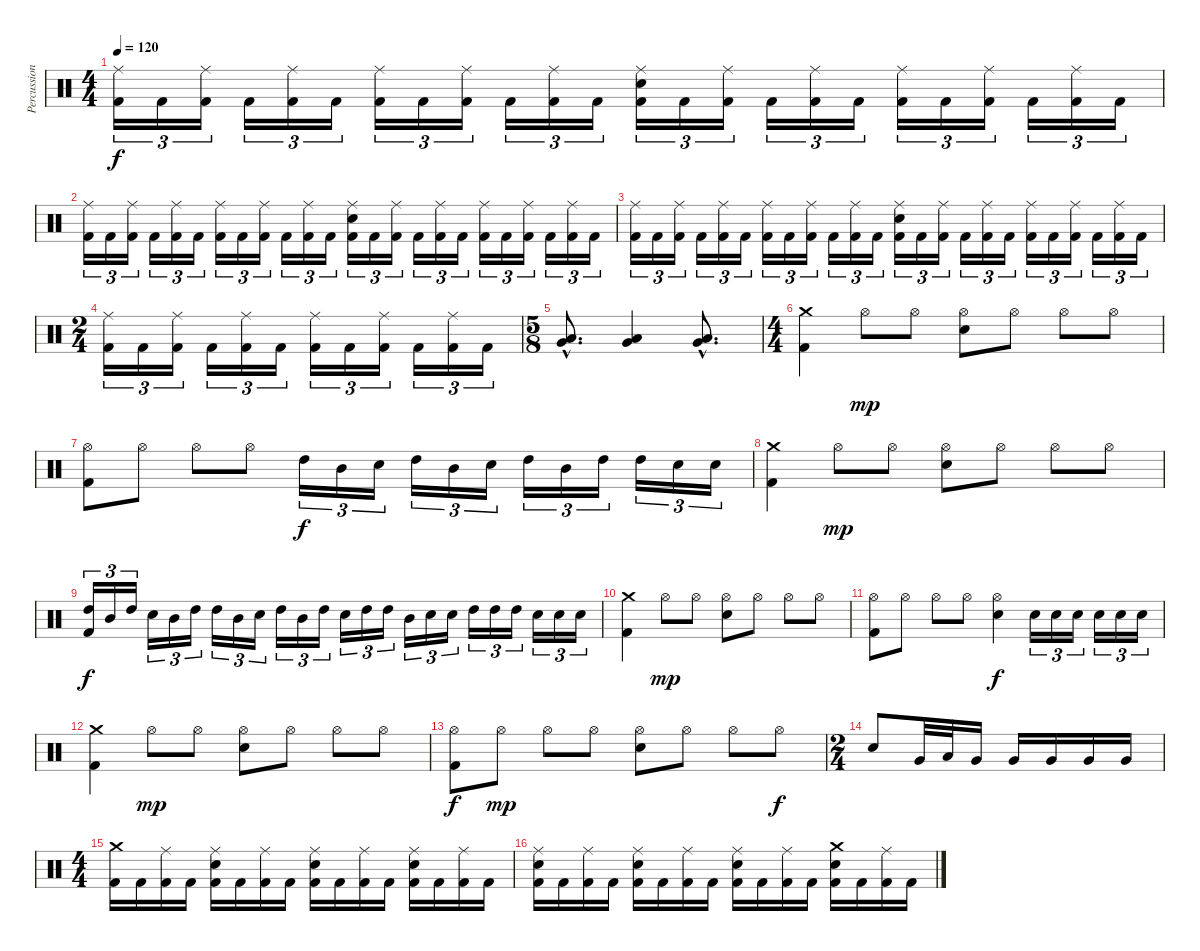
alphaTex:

\track ("Percussion" "Percussion") {instrument percussion}
\staff {score}
\articulation defaults
\ts (4 4)
\tempo 120
\clef neutral
\ks c
("Ride (middle)" "Kick (hit) 2").16{tu (3 2) dy f} "Kick (hit) 2".16{tu (3 2)} ("Ride (middle)" "Kick (hit) 2").16{tu (3 2)} "Kick (hit) 2".16{tu (3 2)} ("Ride (middle)" "Kick (hit) 2").16{tu (3 2)} "Kick (hit) 2".16{tu (3 2)} ("Ride (middle)" "Kick (hit) 2").16{tu (3 2)} "Kick (hit) 2".16{tu (3 2)} ("Ride (middle)" "Kick (hit) 2").16{tu (3 2)} "Kick (hit) 2".16{tu (3 2)} ("Ride (middle)" "Kick (hit) 2").16{tu (3 2)} "Kick (hit) 2".16{tu (3 2)} ("Electric Snare (hit)" "Ride (middle)" "Kick (hit) 2").16{tu (3 2)} "Kick (hit) 2".16{tu (3 2)} ("Ride (middle)" "Kick (hit) 2").16{tu (3 2)} "Kick (hit) 2".16{tu (3 2)} ("Ride (middle)" "Kick (hit) 2").16{tu (3 2)} "Kick (hit) 2".16{tu (3 2)} ("Ride (middle)" "Kick (hit) 2").16{tu (3 2)} "Kick (hit) 2".16{tu (3 2)} ("Ride (middle)" "Kick (hit) 2").16{tu (3 2)} "Kick (hit) 2".16{tu (3 2)} ("Ride (middle)" "Kick (hit) 2").16{tu (3 2)} "Kick (hit) 2".16{tu (3 2)} |
("Ride (middle)" "Kick (hit) 2").16{tu (3 2)} "Kick (hit) 2".16{tu (3 2)} ("Ride (middle)" "Kick (hit) 2").16{tu (3 2)} "Kick (hit) 2".16{tu (3 2)} ("Ride (middle)" "Kick (hit) 2").16{tu (3 2)} "Kick (hit) 2".16{tu (3 2)} ("Ride (middle)" "Kick (hit) 2").16{tu (3 2)} "Kick (hit) 2".16{tu (3 2)} ("Ride (middle)" "Kick (hit) 2").16{tu (3 2)} "Kick (hit) 2".16{tu (3 2)} ("Ride (middle)" "Kick (hit) 2").16{tu (3 2)} "Kick (hit) 2".16{tu (3 2)} ("Electric Snare (hit)" "Ride (middle)" "Kick (hit) 2").16{tu (3 2)} "Kick (hit) 2".16{tu (3 2)} ("Ride (middle)" "Kick (hit) 2").16{tu (3 2)} "Kick (hit) 2".16{tu (3 2)} ("Ride (middle)" "Kick (hit) 2").16{tu (3 2)} "Kick (hit) 2".16{tu (3 2)} ("Ride (middle)" "Kick (hit) 2").16{tu (3 2)} "Kick (hit) 2".16{tu (3 2)} ("Ride (middle)" "Kick (hit) 2").16{tu (3 2)} "Kick (hit) 2".16{tu (3 2)} ("Ride (middle)" "Kick (hit) 2").16{tu (3 2)} "Kick (hit) 2".16{tu (3 2)} |
("Ride (middle)" "Kick (hit) 2").16{tu (3 2)} "Kick (hit) 2".16{tu (3 2)} ("Ride (middle)" "Kick (hit) 2").16{tu (3 2)} "Kick (hit) 2".16{tu (3 2)} ("Ride (middle)" "Kick (hit) 2").16{tu (3 2)} "Kick (hit) 2".16{tu (3 2)} ("Ride (middle)" "Kick (hit) 2").16{tu (3 2)} "Kick (hit) 2".16{tu (3 2)} ("Ride (middle)" "Kick (hit) 2").16{tu (3 2)} "Kick (hit) 2".16{tu (3 2)} ("Ride (middle)" "Kick (hit) 2").16{tu (3 2)} "Kick (hit) 2".16{tu (3 2)} ("Electric Snare (hit)" "Ride (middle)" "Kick (hit) 2").16{tu (3 2)} "Kick (hit) 2".16{tu (3 2)} ("Ride (middle)" "Kick (hit) 2").16{tu (3 2)} "Kick (hit) 2".16{tu (3 2)} ("Ride (middle)" "Kick (hit) 2").16{tu (3 2)} "Kick (hit) 2".16{tu (3 2)} ("Ride (middle)" "Kick (hit) 2").16{tu (3 2)} "Kick (hit) 2".16{tu (3 2)} ("Ride (middle)" "Kick (hit) 2").16{tu (3 2)} "Kick (hit) 2".16{tu (3 2)} ("Ride (middle)" "Kick (hit) 2").16{tu (3 2)} "Kick (hit) 2".16{tu (3 2)} |
\ts (2 4)
("Ride (middle)" "Kick (hit) 2").16{tu (3 2)} "Kick (hit) 2".16{tu (3 2)} ("Ride (middle)" "Kick (hit) 2").16{tu (3 2)} "Kick (hit) 2".16{tu (3 2)} ("Ride (middle)" "Kick (hit) 2").16{tu (3 2)} "Kick (hit) 2".16{tu (3 2)} ("Ride (middle)" "Kick (hit) 2").16{tu (3 2)} "Kick (hit) 2".16{tu (3 2)} ("Ride (middle)" "Kick (hit) 2").16{tu (3 2)} "Kick (hit) 2".16{tu (3 2)} ("Ride (middle)" "Kick (hit) 2").16{tu (3 2)} "Kick (hit) 2".16{tu (3 2)} |
\ts (5 8)
("Very Low Tom (hit)"{hac} "Low Tom (hit)"{hac}).8{d} ("Very Low Tom (hit)" "Low Tom (hit)").4 ("Low Tom (hit)"{hac} "Very Low Tom (hit)"{hac}).8{d} |
\ts (4 4)
("Kick (hit) 2" "Crash medium (hit)").4 "Hi-Hat (open)".8{dy mp} "Hi-Hat (open)".8 ("Electric Snare (hit)" "Hi-Hat (open)").8 "Hi-Hat (open)".8 "Hi-Hat (open)".8 "Hi-Hat (open)".8 |
("Kick (hit) 2" "Hi-Hat (open)").8 "Hi-Hat (open)".8 "Hi-Hat (open)".8 "Hi-Hat (open)".8 "High Tom (hit)".16{tu (3 2) dy f} "Mid Tom (hit)".16{tu (3 2)} "Electric Snare (hit)".16{tu (3 2)} "High Tom (hit)".16{tu (3 2)} "Mid Tom (hit)".16{tu (3 2)} "Electric Snare (hit)".16{tu (3 2)} "High Tom (hit)".16{tu (3 2)} "Mid Tom (hit)".16{tu (3 2)} "High Tom (hit)".16{tu (3 2)} "High Tom (hit)".16{tu (3 2)} "Electric Snare (hit)".16{tu (3 2)} "Electric Snare (hit)".16{tu (3 2)} |
("Kick (hit) 2" "Crash medium (hit)").4 "Hi-Hat (open)".8{dy mp} "Hi-Hat (open)".8 ("Electric Snare (hit)" "Hi-Hat (open)").8 "Hi-Hat (open)".8 "Hi-Hat (open)".8 "Hi-Hat (open)".8 |
("Kick (hit) 2" "High Tom (hit)").16{tu (3 2) dy f} "Mid Tom (hit)".16{tu (3 2)} "High Tom (hit)".16{tu (3 2)} "Electric Snare (hit)".16{tu (3 2)} "Mid Tom (hit)".16{tu (3 2)} "High Tom (hit)".16{tu (3 2)} "High Tom (hit)".16{tu (3 2)} "Mid Tom (hit)".16{tu (3 2)} "Electric Snare (hit)".16{tu (3 2)} "High Tom (hit)".16{tu (3 2)} "Mid Tom (hit)".16{tu (3 2)} "High Tom (hit)".16{tu (3 2)} "Electric Snare (hit)".16{tu (3 2)} "High Tom (hit)".16{tu (3 2)} "High Tom (hit)".16{tu (3 2)} "Mid Tom (hit)".16{tu (3 2)} "Electric Snare (hit)".16{tu (3 2)} "Electric Snare (hit)".16{tu (3 2)} "High Tom (hit)".16{tu (3 2)} "High Tom (hit)".16{tu (3 2)} "High Tom (hit)".16{tu (3 2)} "Electric Snare (hit)".16{tu (3 2)} "Electric Snare (hit)".16{tu (3 2)} "Electric Snare (hit)".16{tu (3 2)} |
("Kick (hit) 2" "Crash medium (hit)").4 "Hi-Hat (open)".8{dy mp} "Hi-Hat (open)".8 ("Electric Snare (hit)" "Hi-Hat (open)").8 "Hi-Hat (open)".8 "Hi-Hat (open)".8 "Hi-Hat (open)".8 |
("Kick (hit) 2" "Hi-Hat (open)").8 "Hi-Hat (open)".8 "Hi-Hat (open)".8 "Hi-Hat (open)".8 ("Electric Snare (hit)" "Hi-Hat (open)").4{dy f} "Electric Snare (hit)".16{tu (3 2)} "Electric Snare (hit)".16{tu (3 2)} "Electric Snare (hit)".16{tu (3 2)} "Electric Snare (hit)".16{tu (3 2)} "Electric Snare (hit)".16{tu (3 2)} "Electric Snare (hit)".16{tu (3 2)} |
("Kick (hit) 2" "Crash medium (hit)").4 "Hi-Hat (open)".8{dy mp} "Hi-Hat (open)".8 ("Electric Snare (hit)" "Hi-Hat (open)").8 "Hi-Hat (open)".8 "Hi-Hat (open)".8 "Hi-Hat (open)".8 |
("Kick (hit) 2" "Hi-Hat (open)").8{dy f} "Hi-Hat (open)".8{dy mp} "Hi-Hat (open)".8 "Hi-Hat (open)".8 ("Electric Snare (hit)" "Hi-Hat (open)").8 "Hi-Hat (open)".8 "Hi-Hat (open)".8 "Hi-Hat (open)".8{dy f} |
\ts (2 4)
"Electric Snare (hit)".8 "Very Low Tom (hit)".32 "Low Tom (hit)".32 "Very Low Tom (hit)".16 "Very Low Tom (hit)".16 "Very Low Tom (hit)".16 "Very Low Tom (hit)".16 "Very Low Tom (hit)".16 |
\ts (4 4)
("Crash medium (hit)" "Kick (hit) 2").16 "Kick (hit) 2".16 ("Ride (middle)" "Kick (hit) 2").16 "Kick (hit) 2".16 ("Electric Snare (hit)" "Ride (middle)" "Kick (hit) 2").16 "Kick (hit) 2".16 ("Ride (middle)" "Kick (hit) 2").16 "Kick (hit) 2".16 ("Electric Snare (hit)" "Ride (middle)" "Kick (hit) 2").16 "Kick (hit) 2".16 ("Ride (middle)" "Kick (hit) 2").16 "Kick (hit) 2".16 ("Electric Snare (hit)" "Ride (middle)" "Kick (hit) 2").16 "Kick (hit) 2".16 ("Ride (middle)" "Kick (hit) 2").16 "Kick (hit) 2".16 |
("Electric Snare (hit)" "Ride (middle)" "Kick (hit) 2").16 "Kick (hit) 2".16 ("Ride (middle)" "Kick (hit) 2").16 "Kick (hit) 2".16 ("Electric Snare (hit)" "Ride (middle)" "Kick (hit) 2").16 "Kick (hit) 2".16 ("Ride (middle)" "Kick (hit) 2").16 "Kick (hit) 2".16 ("Electric Snare (hit)" "Ride (middle)" "Kick (hit) 2").16 "Kick (hit) 2".16 ("Ride (middle)" "Kick (hit) 2").16 "Kick (hit) 2".16 ("Electric Snare (hit)" "Crash medium (hit)" "Kick (hit) 2").16 "Kick (hit) 2".16 ("Ride (middle)" "Kick (hit) 2").16 "Kick (hit) 2".16
